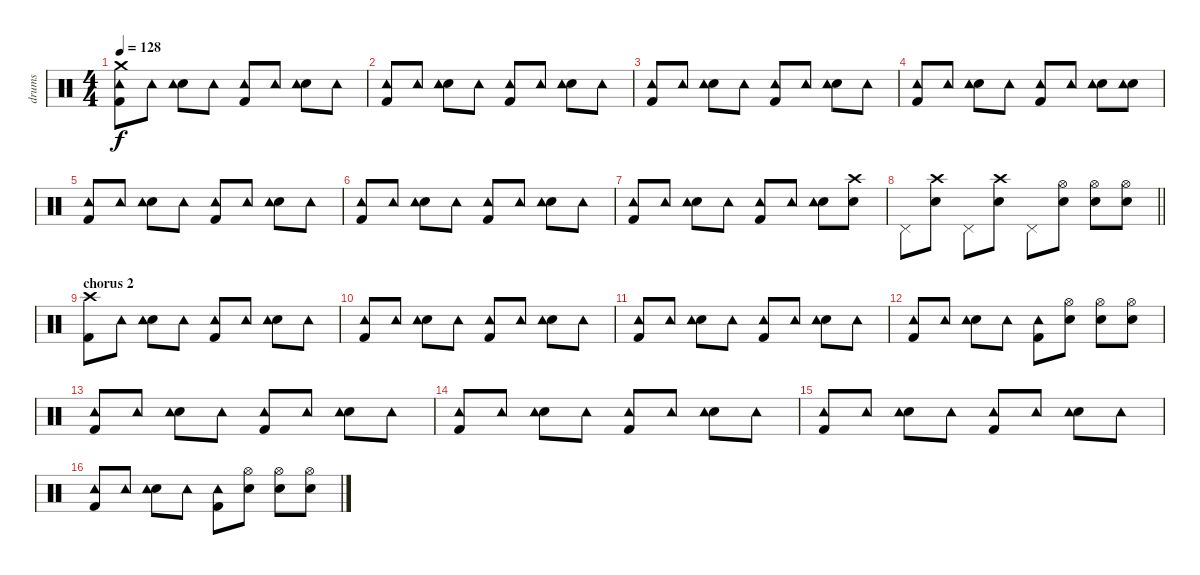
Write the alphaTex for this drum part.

\track ("drums" "drums") {instrument percussion}
\staff {score}
\articulation defaults
\ts (4 4)
\tempo 128
\clef neutral
\ks c
("Kick (hit) 2" "Tambourine (hit)" "Crash medium (hit)").8{dy f} "Tambourine (hit)".8 ("Electric Snare (hit)" "Tambourine (hit)").8 "Tambourine (hit)".8 ("Kick (hit) 2" "Tambourine (hit)").8 "Tambourine (hit)".8 ("Electric Snare (hit)" "Tambourine (hit)").8 "Tambourine (hit)".8 |
("Kick (hit) 2" "Tambourine (hit)").8 "Tambourine (hit)".8 ("Electric Snare (hit)" "Tambourine (hit)").8 "Tambourine (hit)".8 ("Kick (hit) 2" "Tambourine (hit)").8 "Tambourine (hit)".8 ("Electric Snare (hit)" "Tambourine (hit)").8 "Tambourine (hit)".8 |
("Kick (hit) 2" "Tambourine (hit)").8 "Tambourine (hit)".8 ("Electric Snare (hit)" "Tambourine (hit)").8 "Tambourine (hit)".8 ("Kick (hit) 2" "Tambourine (hit)").8 "Tambourine (hit)".8 ("Electric Snare (hit)" "Tambourine (hit)").8 "Tambourine (hit)".8 |
("Kick (hit) 2" "Tambourine (hit)").8 "Tambourine (hit)".8 ("Electric Snare (hit)" "Tambourine (hit)").8 "Tambourine (hit)".8 ("Kick (hit) 2" "Tambourine (hit)").8 "Tambourine (hit)".8 ("Electric Snare (hit)" "Tambourine (hit)").8 ("Electric Snare (hit)" "Tambourine (hit)").8 |
("Kick (hit) 2" "Tambourine (hit)").8 "Tambourine (hit)".8 ("Electric Snare (hit)" "Tambourine (hit)").8 "Tambourine (hit)".8 ("Kick (hit) 2" "Tambourine (hit)").8 "Tambourine (hit)".8 ("Electric Snare (hit)" "Tambourine (hit)").8 "Tambourine (hit)".8 |
("Kick (hit) 2" "Tambourine (hit)").8 "Tambourine (hit)".8 ("Electric Snare (hit)" "Tambourine (hit)").8 "Tambourine (hit)".8 ("Kick (hit) 2" "Tambourine (hit)").8 "Tambourine (hit)".8 ("Electric Snare (hit)" "Tambourine (hit)").8 "Tambourine (hit)".8 |
("Kick (hit) 2" "Tambourine (hit)").8 "Tambourine (hit)".8 ("Electric Snare (hit)" "Tambourine (hit)").8 "Tambourine (hit)".8 ("Kick (hit) 2" "Tambourine (hit)").8 "Tambourine (hit)".8 ("Electric Snare (hit)" "Tambourine (hit)").8 ("Electric Snare (hit)" "Crash high (hit)").8 |
\barLineRight lightlight "Pedal Hi-Hat (hit)".8
("Electric Snare (hit)" "Crash high (hit)").8 "Pedal Hi-Hat (hit)".8 ("Electric Snare (hit)" "Crash high (hit)").8 "Pedal Hi-Hat (hit)".8 ("Electric Snare (hit)" "Hi-Hat (open)").8 ("Electric Snare (hit)" "Hi-Hat (open)").8 ("Electric Snare (hit)" "Hi-Hat (open)").8 |
\section ("" "chorus 2")
("Kick (hit) 2" "Crash high (hit)").8 "Tambourine (hit)".8 ("Electric Snare (hit)" "Tambourine (hit)").8 "Tambourine (hit)".8 ("Kick (hit) 2" "Tambourine (hit)").8 "Tambourine (hit)".8 ("Electric Snare (hit)" "Tambourine (hit)").8 "Tambourine (hit)".8 |
("Kick (hit) 2" "Tambourine (hit)").8 "Tambourine (hit)".8 ("Electric Snare (hit)" "Tambourine (hit)").8 "Tambourine (hit)".8 ("Kick (hit) 2" "Tambourine (hit)").8 "Tambourine (hit)".8 ("Electric Snare (hit)" "Tambourine (hit)").8 "Tambourine (hit)".8 |
("Kick (hit) 2" "Tambourine (hit)").8 "Tambourine (hit)".8 ("Electric Snare (hit)" "Tambourine (hit)").8 "Tambourine (hit)".8 ("Kick (hit) 2" "Tambourine (hit)").8 "Tambourine (hit)".8 ("Electric Snare (hit)" "Tambourine (hit)").8 "Tambourine (hit)".8 |
("Kick (hit) 2" "Tambourine (hit)").8 "Tambourine (hit)".8 ("Electric Snare (hit)" "Tambourine (hit)").8 "Tambourine (hit)".8 ("Kick (hit) 2" "Tambourine (hit)").8 ("Electric Snare (hit)" "Hi-Hat (open)").8 ("Electric Snare (hit)" "Hi-Hat (open)").8 ("Electric Snare (hit)" "Hi-Hat (open)").8 |
("Kick (hit) 2" "Tambourine (hit)").8 "Tambourine (hit)".8 ("Electric Snare (hit)" "Tambourine (hit)").8 "Tambourine (hit)".8 ("Kick (hit) 2" "Tambourine (hit)").8 "Tambourine (hit)".8 ("Electric Snare (hit)" "Tambourine (hit)").8 "Tambourine (hit)".8 |
("Kick (hit) 2" "Tambourine (hit)").8 "Tambourine (hit)".8 ("Electric Snare (hit)" "Tambourine (hit)").8 "Tambourine (hit)".8 ("Kick (hit) 2" "Tambourine (hit)").8 "Tambourine (hit)".8 ("Electric Snare (hit)" "Tambourine (hit)").8 "Tambourine (hit)".8 |
("Kick (hit) 2" "Tambourine (hit)").8 "Tambourine (hit)".8 ("Electric Snare (hit)" "Tambourine (hit)").8 "Tambourine (hit)".8 ("Kick (hit) 2" "Tambourine (hit)").8 "Tambourine (hit)".8 ("Electric Snare (hit)" "Tambourine (hit)").8 "Tambourine (hit)".8 |
("Kick (hit) 2" "Tambourine (hit)").8 "Tambourine (hit)".8 ("Electric Snare (hit)" "Tambourine (hit)").8 "Tambourine (hit)".8 ("Kick (hit) 2" "Tambourine (hit)").8 ("Electric Snare (hit)" "Hi-Hat (open)").8 ("Electric Snare (hit)" "Hi-Hat (open)").8 ("Electric Snare (hit)" "Hi-Hat (open)").8
